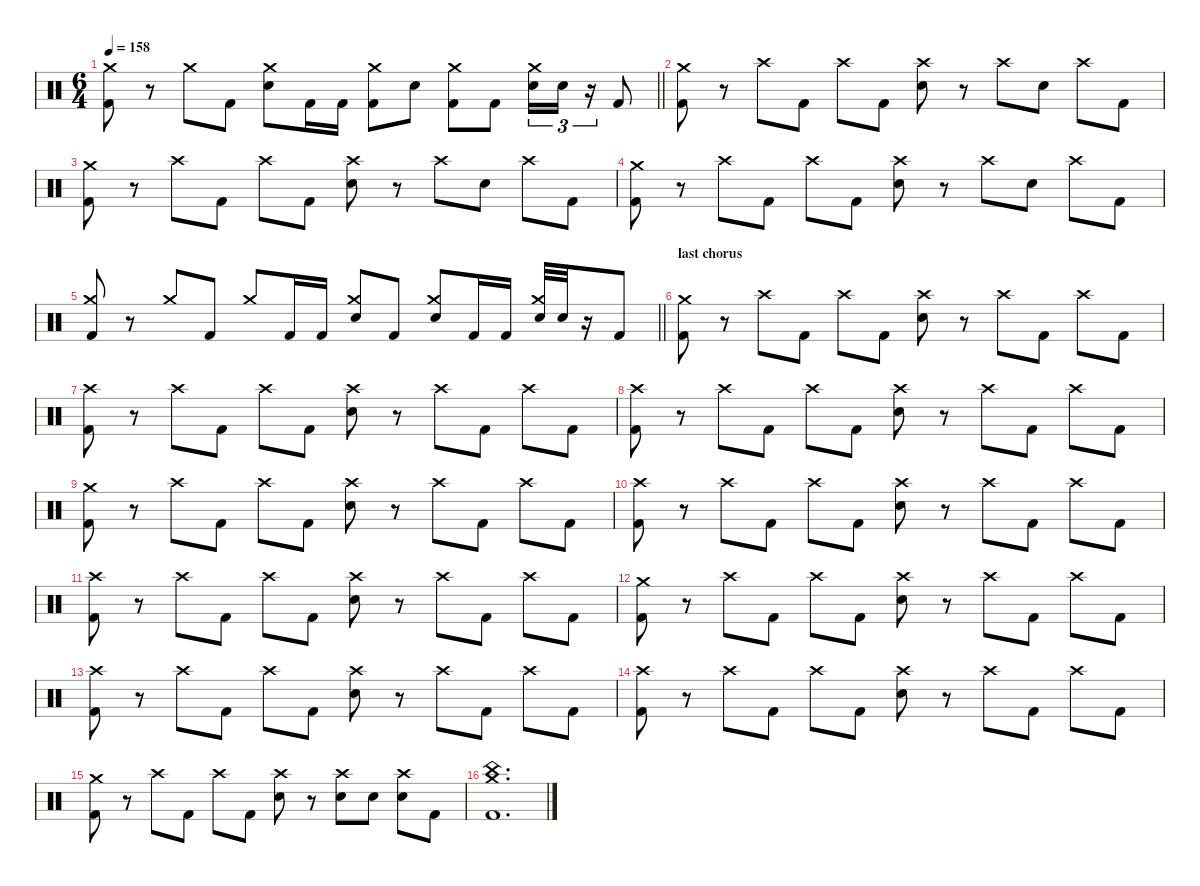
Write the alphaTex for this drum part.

\defaultSystemsLayout 4
\hideDynamics
\bracketExtendMode nobrackets
\singleTrackTrackNamePolicy hidden
\multiTrackTrackNamePolicy hidden
\firstSystemTrackNameMode fullname
\firstSystemTrackNameOrientation horizontal
\otherSystemsTrackNameOrientation horizontal
\track ("Drums" "drm.") {defaultSystemsLayout 4 instrument percussion}
\staff {score}
\articulation defaults
\ts (6 4)
\tempo 158
\clef neutral
\barLineRight lightlight
\ks c
("Crash medium (hit)" "Kick (hit) 2").8{dy f beam Down} r.8{beam Down} "Crash medium (hit)".8{beam Down} "Kick (hit) 2".8{beam Down} ("Crash medium (hit)" "Snare (hit) 2").8{beam Down} "Kick (hit) 2".16{beam Down} "Kick (hit) 2".16{beam Down} ("Crash medium (hit)" "Kick (hit) 2").8{beam Down} "Snare (hit) 2".8{beam Down} ("Crash medium (hit)" "Kick (hit) 2").8{beam Down} "Kick (hit) 2".8{beam Down} ("Crash medium (hit)" "Snare (hit) 2").16{tu (3 2) beam Down} "Snare (hit) 2".16{tu (3 2) beam Down} r.16{tu (3 2) beam Down} "Kick (hit) 2".8{beam Up} |
("Crash medium (hit)" "Kick (hit) 2").8{beam Down} r.8{beam Down} "Crash high (hit)".8{beam Down} "Kick (hit) 2".8{beam Down} "Crash high (hit)".8{beam Down} "Kick (hit) 2".8{beam Down} ("Crash high (hit)" "Snare (hit) 2").8{beam Down} r.8{beam Down} "Crash high (hit)".8{beam Down} "Snare (hit) 2".8{beam Down} "Crash high (hit)".8{beam Down} "Kick (hit) 2".8{beam Down} |
("Crash medium (hit)" "Kick (hit) 2").8{beam Down} r.8{beam Down} "Crash high (hit)".8{beam Down} "Kick (hit) 2".8{beam Down} "Crash high (hit)".8{beam Down} "Kick (hit) 2".8{beam Down} ("Crash high (hit)" "Snare (hit) 2").8{beam Down} r.8{beam Down} "Crash high (hit)".8{beam Down} "Snare (hit) 2".8{beam Down} "Crash high (hit)".8{beam Down} "Kick (hit) 2".8{beam Down} |
("Crash medium (hit)" "Kick (hit) 2").8{beam Down} r.8{beam Down} "Crash high (hit)".8{beam Down} "Kick (hit) 2".8{beam Down} "Crash high (hit)".8{beam Down} "Kick (hit) 2".8{beam Down} ("Crash high (hit)" "Snare (hit) 2").8{beam Down} r.8{beam Down} "Crash high (hit)".8{beam Down} "Snare (hit) 2".8{beam Down} "Crash high (hit)".8{beam Down} "Kick (hit) 2".8{beam Down} |
\barLineRight lightlight
("Crash medium (hit)" "Kick (hit) 2").8{beam Up} r.8{beam Up} "Crash medium (hit)".8{beam Up} "Kick (hit) 2".8{beam Up} "Crash medium (hit)".8{beam Up} "Kick (hit) 2".16{beam Up} "Kick (hit) 2".16{beam Up} ("Crash medium (hit)" "Snare (hit) 2").8{beam Up} "Kick (hit) 2".8{beam Up} ("Crash medium (hit)" "Snare (hit) 2").8{beam Up} "Kick (hit) 2".16{beam Up} "Kick (hit) 2".16{beam Up} ("Crash medium (hit)" "Snare (hit) 2").32{beam Up} "Snare (hit) 2".32{beam Up} r.16{beam Up} "Kick (hit) 2".8{beam Up} |
\section ("" "last chorus")
("Crash medium (hit)" "Kick (hit) 2").8{beam Down} r.8{beam Down} "Crash high (hit)".8{beam Down} "Kick (hit) 2".8{beam Down} "Crash high (hit)".8{beam Down} "Kick (hit) 2".8{beam Down} ("Crash high (hit)" "Snare (hit) 2").8{beam Down} r.8{beam Down} "Crash high (hit)".8{beam Down} "Kick (hit) 2".8{beam Down} "Crash high (hit)".8{beam Down} "Kick (hit) 2".8{beam Down} |
("Crash high (hit)" "Kick (hit) 2").8{beam Down} r.8{beam Down} "Crash high (hit)".8{beam Down} "Kick (hit) 2".8{beam Down} "Crash high (hit)".8{beam Down} "Kick (hit) 2".8{beam Down} ("Crash high (hit)" "Snare (hit) 2").8{beam Down} r.8{beam Down} "Crash high (hit)".8{beam Down} "Kick (hit) 2".8{beam Down} "Crash high (hit)".8{beam Down} "Kick (hit) 2".8{beam Down} |
("Crash high (hit)" "Kick (hit) 2").8{beam Down} r.8{beam Down} "Crash high (hit)".8{beam Down} "Kick (hit) 2".8{beam Down} "Crash high (hit)".8{beam Down} "Kick (hit) 2".8{beam Down} ("Crash high (hit)" "Snare (hit) 2").8{beam Down} r.8{beam Down} "Crash high (hit)".8{beam Down} "Kick (hit) 2".8{beam Down} "Crash high (hit)".8{beam Down} "Kick (hit) 2".8{beam Down} |
("Crash medium (hit)" "Kick (hit) 2").8{beam Down} r.8{beam Down} "Crash high (hit)".8{beam Down} "Kick (hit) 2".8{beam Down} "Crash high (hit)".8{beam Down} "Kick (hit) 2".8{beam Down} ("Crash high (hit)" "Snare (hit) 2").8{beam Down} r.8{beam Down} "Crash high (hit)".8{beam Down} "Kick (hit) 2".8{beam Down} "Crash high (hit)".8{beam Down} "Kick (hit) 2".8{beam Down} |
("Crash high (hit)" "Kick (hit) 2").8{beam Down} r.8{beam Down} "Crash high (hit)".8{beam Down} "Kick (hit) 2".8{beam Down} "Crash high (hit)".8{beam Down} "Kick (hit) 2".8{beam Down} ("Crash high (hit)" "Snare (hit) 2").8{beam Down} r.8{beam Down} "Crash high (hit)".8{beam Down} "Kick (hit) 2".8{beam Down} "Crash high (hit)".8{beam Down} "Kick (hit) 2".8{beam Down} |
("Crash high (hit)" "Kick (hit) 2").8{beam Down} r.8{beam Down} "Crash high (hit)".8{beam Down} "Kick (hit) 2".8{beam Down} "Crash high (hit)".8{beam Down} "Kick (hit) 2".8{beam Down} ("Crash high (hit)" "Snare (hit) 2").8{beam Down} r.8{beam Down} "Crash high (hit)".8{beam Down} "Kick (hit) 2".8{beam Down} "Crash high (hit)".8{beam Down} "Kick (hit) 2".8{beam Down} |
("Crash medium (hit)" "Kick (hit) 2").8{beam Down} r.8{beam Down} "Crash high (hit)".8{beam Down} "Kick (hit) 2".8{beam Down} "Crash high (hit)".8{beam Down} "Kick (hit) 2".8{beam Down} ("Crash high (hit)" "Snare (hit) 2").8{beam Down} r.8{beam Down} "Crash high (hit)".8{beam Down} "Kick (hit) 2".8{beam Down} "Crash high (hit)".8{beam Down} "Kick (hit) 2".8{beam Down} |
("Crash high (hit)" "Kick (hit) 2").8{beam Down} r.8{beam Down} "Crash high (hit)".8{beam Down} "Kick (hit) 2".8{beam Down} "Crash high (hit)".8{beam Down} "Kick (hit) 2".8{beam Down} ("Crash high (hit)" "Snare (hit) 2").8{beam Down} r.8{beam Down} "Crash high (hit)".8{beam Down} "Kick (hit) 2".8{beam Down} "Crash high (hit)".8{beam Down} "Kick (hit) 2".8{beam Down} |
("Crash high (hit)" "Kick (hit) 2").8{beam Down} r.8{beam Down} "Crash high (hit)".8{beam Down} "Kick (hit) 2".8{beam Down} "Crash high (hit)".8{beam Down} "Kick (hit) 2".8{beam Down} ("Crash high (hit)" "Snare (hit) 2").8{beam Down} r.8{beam Down} "Crash high (hit)".8{beam Down} "Kick (hit) 2".8{beam Down} "Crash high (hit)".8{beam Down} "Kick (hit) 2".8{beam Down} |
("Crash medium (hit)" "Kick (hit) 2").8{beam Down} r.8{beam Down} "Crash high (hit)".8{beam Down} "Kick (hit) 2".8{beam Down} "Crash high (hit)".8{beam Down} "Kick (hit) 2".8{beam Down} ("Crash high (hit)" "Snare (hit) 2").8{beam Down} r.8{beam Down} ("Crash high (hit)" "Snare (hit) 2").8{beam Down} "Snare (hit) 2".8{beam Down} ("Crash high (hit)" "Snare (hit) 2").8{beam Down} "Kick (hit) 2".8{beam Down} |
("China (hit)" "Crash medium (hit)" "Kick (hit) 2").1{d beam Down}
